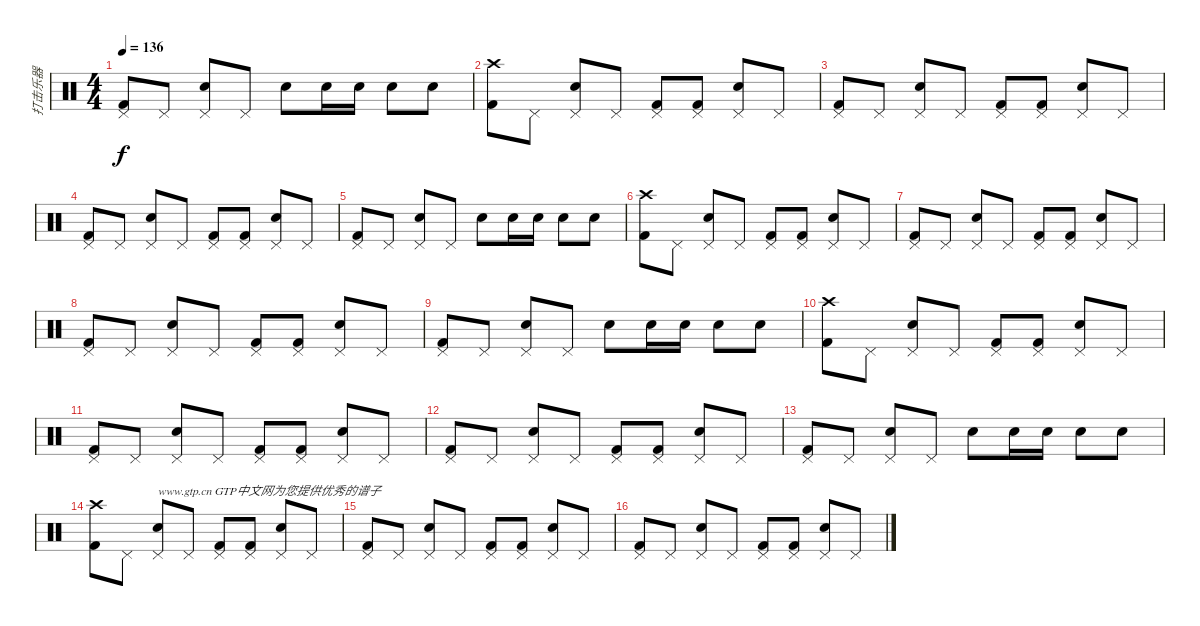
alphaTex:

\track ("打击乐器" "打击乐器") {instrument percussion}
\staff {score}
\articulation defaults
\ts (4 4)
\tempo 136
\clef neutral
\ks c
("Pedal Hi-Hat (hit)" "Kick (hit) 2").8{dy f} "Pedal Hi-Hat (hit)".8 ("Pedal Hi-Hat (hit)" "Snare (hit) 2").8 "Pedal Hi-Hat (hit)".8 "Snare (hit) 2".8 "Snare (hit) 2".16 "Snare (hit) 2".16 "Snare (hit) 2".8 "Snare (hit) 2".8 |
("Crash high (hit)" "Kick (hit) 2").8 "Pedal Hi-Hat (hit)".8 ("Pedal Hi-Hat (hit)" "Snare (hit) 2").8 "Pedal Hi-Hat (hit)".8 ("Pedal Hi-Hat (hit)" "Kick (hit) 2").8 ("Pedal Hi-Hat (hit)" "Kick (hit) 2").8 ("Pedal Hi-Hat (hit)" "Snare (hit) 2").8 "Pedal Hi-Hat (hit)".8 |
("Pedal Hi-Hat (hit)" "Kick (hit) 2").8 "Pedal Hi-Hat (hit)".8 ("Pedal Hi-Hat (hit)" "Snare (hit) 2").8 "Pedal Hi-Hat (hit)".8 ("Pedal Hi-Hat (hit)" "Kick (hit) 2").8 ("Pedal Hi-Hat (hit)" "Kick (hit) 2").8 ("Pedal Hi-Hat (hit)" "Snare (hit) 2").8 "Pedal Hi-Hat (hit)".8 |
("Pedal Hi-Hat (hit)" "Kick (hit) 2").8 "Pedal Hi-Hat (hit)".8 ("Pedal Hi-Hat (hit)" "Snare (hit) 2").8 "Pedal Hi-Hat (hit)".8 ("Pedal Hi-Hat (hit)" "Kick (hit) 2").8 ("Pedal Hi-Hat (hit)" "Kick (hit) 2").8 ("Pedal Hi-Hat (hit)" "Snare (hit) 2").8 "Pedal Hi-Hat (hit)".8 |
("Pedal Hi-Hat (hit)" "Kick (hit) 2").8 "Pedal Hi-Hat (hit)".8 ("Pedal Hi-Hat (hit)" "Snare (hit) 2").8 "Pedal Hi-Hat (hit)".8 "Snare (hit) 2".8 "Snare (hit) 2".16 "Snare (hit) 2".16 "Snare (hit) 2".8 "Snare (hit) 2".8 |
("Crash high (hit)" "Kick (hit) 2").8 "Pedal Hi-Hat (hit)".8 ("Pedal Hi-Hat (hit)" "Snare (hit) 2").8 "Pedal Hi-Hat (hit)".8 ("Pedal Hi-Hat (hit)" "Kick (hit) 2").8 ("Pedal Hi-Hat (hit)" "Kick (hit) 2").8 ("Pedal Hi-Hat (hit)" "Snare (hit) 2").8 "Pedal Hi-Hat (hit)".8 |
("Pedal Hi-Hat (hit)" "Kick (hit) 2").8 "Pedal Hi-Hat (hit)".8 ("Pedal Hi-Hat (hit)" "Snare (hit) 2").8 "Pedal Hi-Hat (hit)".8 ("Pedal Hi-Hat (hit)" "Kick (hit) 2").8 ("Pedal Hi-Hat (hit)" "Kick (hit) 2").8 ("Pedal Hi-Hat (hit)" "Snare (hit) 2").8 "Pedal Hi-Hat (hit)".8 |
("Pedal Hi-Hat (hit)" "Kick (hit) 2").8 "Pedal Hi-Hat (hit)".8 ("Pedal Hi-Hat (hit)" "Snare (hit) 2").8 "Pedal Hi-Hat (hit)".8 ("Pedal Hi-Hat (hit)" "Kick (hit) 2").8 ("Pedal Hi-Hat (hit)" "Kick (hit) 2").8 ("Pedal Hi-Hat (hit)" "Snare (hit) 2").8 "Pedal Hi-Hat (hit)".8 |
("Pedal Hi-Hat (hit)" "Kick (hit) 2").8 "Pedal Hi-Hat (hit)".8 ("Pedal Hi-Hat (hit)" "Snare (hit) 2").8 "Pedal Hi-Hat (hit)".8 "Snare (hit) 2".8 "Snare (hit) 2".16 "Snare (hit) 2".16 "Snare (hit) 2".8 "Snare (hit) 2".8 |
("Crash high (hit)" "Kick (hit) 2").8 "Pedal Hi-Hat (hit)".8 ("Pedal Hi-Hat (hit)" "Snare (hit) 2").8 "Pedal Hi-Hat (hit)".8 ("Pedal Hi-Hat (hit)" "Kick (hit) 2").8 ("Pedal Hi-Hat (hit)" "Kick (hit) 2").8 ("Pedal Hi-Hat (hit)" "Snare (hit) 2").8 "Pedal Hi-Hat (hit)".8 |
("Pedal Hi-Hat (hit)" "Kick (hit) 2").8 "Pedal Hi-Hat (hit)".8 ("Pedal Hi-Hat (hit)" "Snare (hit) 2").8 "Pedal Hi-Hat (hit)".8 ("Pedal Hi-Hat (hit)" "Kick (hit) 2").8 ("Pedal Hi-Hat (hit)" "Kick (hit) 2").8 ("Pedal Hi-Hat (hit)" "Snare (hit) 2").8 "Pedal Hi-Hat (hit)".8 |
("Pedal Hi-Hat (hit)" "Kick (hit) 2").8 "Pedal Hi-Hat (hit)".8 ("Pedal Hi-Hat (hit)" "Snare (hit) 2").8 "Pedal Hi-Hat (hit)".8 ("Pedal Hi-Hat (hit)" "Kick (hit) 2").8 ("Pedal Hi-Hat (hit)" "Kick (hit) 2").8 ("Pedal Hi-Hat (hit)" "Snare (hit) 2").8 "Pedal Hi-Hat (hit)".8 |
("Pedal Hi-Hat (hit)" "Kick (hit) 2").8 "Pedal Hi-Hat (hit)".8 ("Pedal Hi-Hat (hit)" "Snare (hit) 2").8 "Pedal Hi-Hat (hit)".8 "Snare (hit) 2".8 "Snare (hit) 2".16 "Snare (hit) 2".16 "Snare (hit) 2".8 "Snare (hit) 2".8 |
("Crash high (hit)" "Kick (hit) 2").8 "Pedal Hi-Hat (hit)".8 ("Pedal Hi-Hat (hit)" "Snare (hit) 2").8{txt "www.gtp.cn GTP中文网为您提供优秀的谱子"} "Pedal Hi-Hat (hit)".8 ("Pedal Hi-Hat (hit)" "Kick (hit) 2").8 ("Pedal Hi-Hat (hit)" "Kick (hit) 2").8 ("Pedal Hi-Hat (hit)" "Snare (hit) 2").8 "Pedal Hi-Hat (hit)".8 |
("Pedal Hi-Hat (hit)" "Kick (hit) 2").8 "Pedal Hi-Hat (hit)".8 ("Pedal Hi-Hat (hit)" "Snare (hit) 2").8 "Pedal Hi-Hat (hit)".8 ("Pedal Hi-Hat (hit)" "Kick (hit) 2").8 ("Pedal Hi-Hat (hit)" "Kick (hit) 2").8 ("Pedal Hi-Hat (hit)" "Snare (hit) 2").8 "Pedal Hi-Hat (hit)".8 |
("Pedal Hi-Hat (hit)" "Kick (hit) 2").8 "Pedal Hi-Hat (hit)".8 ("Pedal Hi-Hat (hit)" "Snare (hit) 2").8 "Pedal Hi-Hat (hit)".8 ("Pedal Hi-Hat (hit)" "Kick (hit) 2").8 ("Pedal Hi-Hat (hit)" "Kick (hit) 2").8 ("Pedal Hi-Hat (hit)" "Snare (hit) 2").8 "Pedal Hi-Hat (hit)".8
